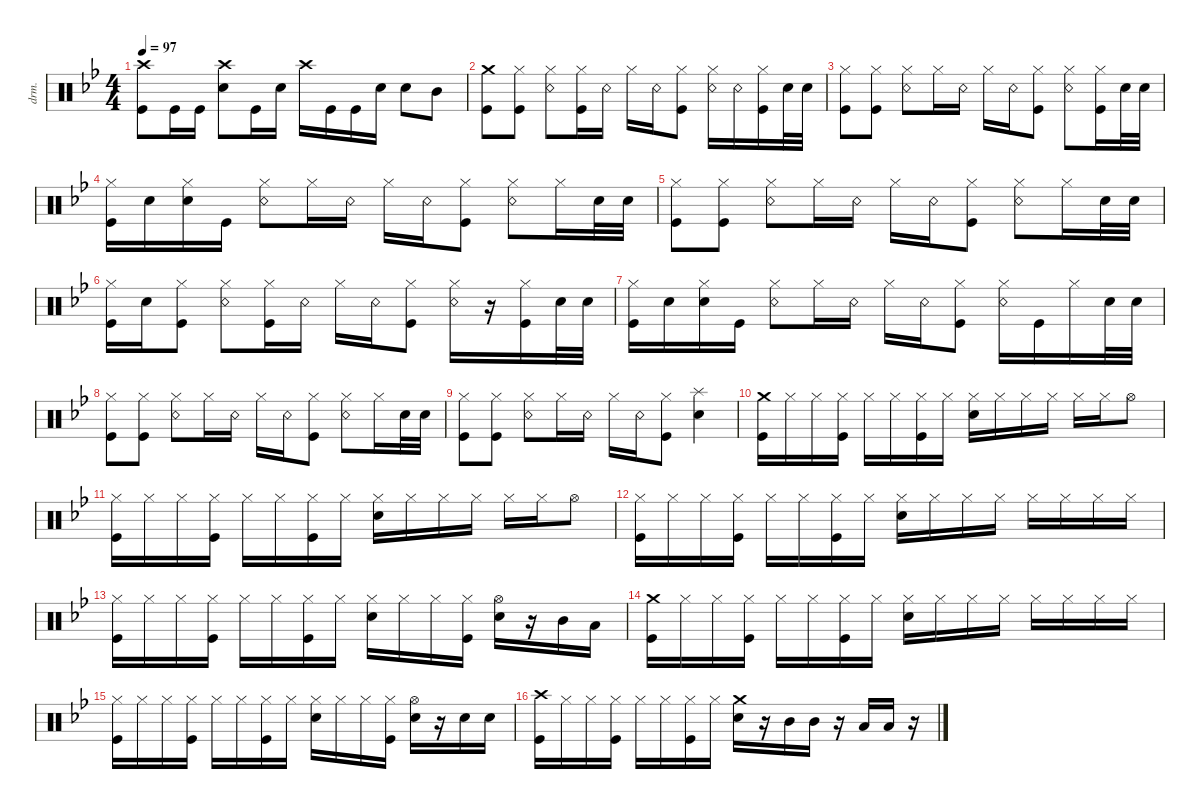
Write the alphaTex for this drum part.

\defaultSystemsLayout 4
\hideDynamics
\bracketExtendMode nobrackets
\otherSystemsTrackNameOrientation horizontal
\track ("Drumkit" "drm.") {instrument percussion}
\staff {score}
\articulation defaults
\ts (4 4)
\tempo 97
\clef neutral
\ks bb
("Kick (hit)" "Crash high (hit)").8{dy mp} "Kick (hit)".16 "Kick (hit)".16 ("Snare (hit) 2" "Crash high (hit)").8 "Kick (hit)".16 "Snare (hit) 2".16 "Crash high (hit)".16 "Kick (hit)".16 "Kick (hit)".16 "Snare (hit) 2".16 "Snare (hit) 2".8 "Mid Tom (hit)".8 |
("Kick (hit)" "Crash medium (hit)").8{dy p} ("Kick (hit)" "Hi-Hat (closed)").8 ("Snare (rim shot)" "Hi-Hat (closed)").8{dy mp} ("Kick (hit)" "Hi-Hat (closed)").16 "Snare (rim shot)".16 "Hi-Hat (closed)".16 "Snare (rim shot)".16 ("Kick (hit)" "Hi-Hat (closed)").8 ("Snare (rim shot)" "Hi-Hat (closed)").16 "Snare (rim shot)".16 ("Kick (hit)" "Hi-Hat (closed)").16 "Snare (hit) 2".32 "Snare (hit) 2".32 |
("Kick (hit)" "Hi-Hat (closed)").8 ("Kick (hit)" "Hi-Hat (closed)").8 ("Snare (rim shot)" "Hi-Hat (closed)").8 "Hi-Hat (closed)".16 "Snare (rim shot)".16 "Hi-Hat (closed)".16 "Snare (rim shot)".16 ("Kick (hit)" "Hi-Hat (closed)").8 ("Snare (rim shot)" "Hi-Hat (closed)").8 ("Kick (hit)" "Hi-Hat (closed)").16 "Snare (hit) 2".32 "Snare (hit) 2".32 |
("Kick (hit)" "Hi-Hat (closed)").16 "Snare (hit) 2".16 ("Snare (hit) 2" "Hi-Hat (closed)").16 "Kick (hit)".16 ("Snare (rim shot)" "Hi-Hat (closed)").8 "Hi-Hat (closed)".16 "Snare (rim shot)".16 "Hi-Hat (closed)".16 "Snare (rim shot)".16 ("Kick (hit)" "Hi-Hat (closed)").8 ("Snare (rim shot)" "Hi-Hat (closed)").8 "Hi-Hat (closed)".16 "Snare (hit) 2".32 "Snare (hit) 2".32 |
("Kick (hit)" "Hi-Hat (closed)").8 ("Kick (hit)" "Hi-Hat (closed)").8 ("Snare (rim shot)" "Hi-Hat (closed)").8 "Hi-Hat (closed)".16 "Snare (rim shot)".16 "Hi-Hat (closed)".16 "Snare (rim shot)".16 ("Kick (hit)" "Hi-Hat (closed)").8 ("Snare (rim shot)" "Hi-Hat (closed)").8 "Hi-Hat (closed)".16 "Snare (hit) 2".32 "Snare (hit) 2".32 |
("Kick (hit)" "Hi-Hat (closed)").16{dy p} "Snare (hit) 2".16 ("Kick (hit)" "Hi-Hat (closed)").8 ("Snare (rim shot)" "Hi-Hat (closed)").8{dy mp} ("Kick (hit)" "Hi-Hat (closed)").16 "Snare (rim shot)".16 "Hi-Hat (closed)".16 "Snare (rim shot)".16 ("Kick (hit)" "Hi-Hat (closed)").8 ("Snare (rim shot)" "Hi-Hat (closed)").16 r.16 ("Kick (hit)" "Hi-Hat (closed)").16 "Snare (hit) 2".32 "Snare (hit) 2".32 |
("Kick (hit)" "Hi-Hat (closed)").16 "Snare (hit) 2".16 ("Snare (hit) 2" "Hi-Hat (closed)").16 "Kick (hit)".16 ("Snare (rim shot)" "Hi-Hat (closed)").8 "Hi-Hat (closed)".16 "Snare (rim shot)".16 "Hi-Hat (closed)".16 "Snare (rim shot)".16 ("Kick (hit)" "Hi-Hat (closed)").8 ("Snare (rim shot)" "Hi-Hat (closed)").16 "Kick (hit)".16 "Hi-Hat (closed)".16 "Snare (hit) 2".32 "Snare (hit) 2".32 |
("Kick (hit)" "Hi-Hat (closed)").8 ("Kick (hit)" "Hi-Hat (closed)").8 ("Snare (rim shot)" "Hi-Hat (closed)").8 "Hi-Hat (closed)".16 "Snare (rim shot)".16 "Hi-Hat (closed)".16 "Snare (rim shot)".16 ("Kick (hit)" "Hi-Hat (closed)").8 ("Snare (rim shot)" "Hi-Hat (closed)").8 "Hi-Hat (closed)".16 "Snare (hit) 2".32 "Snare (hit) 2".32 |
("Kick (hit)" "Hi-Hat (closed)").8 ("Kick (hit)" "Hi-Hat (closed)").8 ("Snare (rim shot)" "Hi-Hat (closed)").8 "Hi-Hat (closed)".16 "Snare (rim shot)".16 "Hi-Hat (closed)".16 "Snare (rim shot)".16 ("Kick (hit)" "Hi-Hat (closed)").8 ("Splash (hit)" "Snare (hit) 2").4 |
("Crash medium (hit)" "Kick (hit)").16{dy mf} "Hi-Hat (closed)".16 "Hi-Hat (closed)".16 ("Hi-Hat (closed)" "Kick (hit)").16 "Hi-Hat (closed)".16 "Hi-Hat (closed)".16 ("Hi-Hat (closed)" "Kick (hit)").16 "Hi-Hat (closed)".16 ("Hi-Hat (closed)" "Snare (hit) 2").16 "Hi-Hat (closed)".16 "Hi-Hat (closed)".16 "Hi-Hat (closed)".16 "Hi-Hat (closed)".16 "Hi-Hat (closed)".16 "Hi-Hat (open)".8 |
("Kick (hit)" "Hi-Hat (closed)").16 "Hi-Hat (closed)".16 "Hi-Hat (closed)".16 ("Hi-Hat (closed)" "Kick (hit)").16 "Hi-Hat (closed)".16 "Hi-Hat (closed)".16 ("Hi-Hat (closed)" "Kick (hit)").16 "Hi-Hat (closed)".16 ("Hi-Hat (closed)" "Snare (hit) 2").16 "Hi-Hat (closed)".16 "Hi-Hat (closed)".16 "Hi-Hat (closed)".16 "Hi-Hat (closed)".16 "Hi-Hat (closed)".16 "Hi-Hat (open)".8 |
("Kick (hit)" "Hi-Hat (closed)").16 "Hi-Hat (closed)".16 "Hi-Hat (closed)".16 ("Hi-Hat (closed)" "Kick (hit)").16 "Hi-Hat (closed)".16 "Hi-Hat (closed)".16 ("Hi-Hat (closed)" "Kick (hit)").16 "Hi-Hat (closed)".16 ("Hi-Hat (closed)" "Snare (hit) 2").16 "Hi-Hat (closed)".16 "Hi-Hat (closed)".16 "Hi-Hat (closed)".16 "Hi-Hat (closed)".16 "Hi-Hat (closed)".16 "Hi-Hat (closed)".16 "Hi-Hat (closed)".16 |
("Kick (hit)" "Hi-Hat (closed)").16 "Hi-Hat (closed)".16 "Hi-Hat (closed)".16 ("Hi-Hat (closed)" "Kick (hit)").16 "Hi-Hat (closed)".16 "Hi-Hat (closed)".16 ("Hi-Hat (closed)" "Kick (hit)").16 "Hi-Hat (closed)".16 ("Hi-Hat (closed)" "Snare (hit) 2").16 "Hi-Hat (closed)".16 "Hi-Hat (closed)".16 ("Hi-Hat (closed)" "Kick (hit)").16 ("Hi-Hat (open)" "Snare (hit) 2").16 r.16 "Mid Tom (hit)".16 "Low Tom (hit)".16 |
("Crash medium (hit)" "Kick (hit)").16 "Hi-Hat (closed)".16 "Hi-Hat (closed)".16 ("Hi-Hat (closed)" "Kick (hit)").16 "Hi-Hat (closed)".16 "Hi-Hat (closed)".16 ("Hi-Hat (closed)" "Kick (hit)").16 "Hi-Hat (closed)".16 ("Hi-Hat (closed)" "Snare (hit) 2").16 "Hi-Hat (closed)".16 "Hi-Hat (closed)".16 "Hi-Hat (closed)".16 "Hi-Hat (closed)".16 "Hi-Hat (closed)".16 "Hi-Hat (closed)".16 "Hi-Hat (closed)".16 |
("Kick (hit)" "Hi-Hat (closed)").16 "Hi-Hat (closed)".16 "Hi-Hat (closed)".16 ("Hi-Hat (closed)" "Kick (hit)").16 "Hi-Hat (closed)".16 "Hi-Hat (closed)".16 ("Hi-Hat (closed)" "Kick (hit)").16 "Hi-Hat (closed)".16 ("Hi-Hat (closed)" "Snare (hit) 2").16 "Hi-Hat (closed)".16 "Hi-Hat (closed)".16 ("Hi-Hat (closed)" "Kick (hit)").16 ("Hi-Hat (open)" "Snare (hit) 2").16 r.16 "Snare (hit) 2".16 "Snare (hit) 2".16 |
("Kick (hit)" "Crash high (hit)").16 "Hi-Hat (closed)".16 "Hi-Hat (closed)".16 ("Hi-Hat (closed)" "Kick (hit)").16 "Hi-Hat (closed)".16 "Hi-Hat (closed)".16 ("Hi-Hat (closed)" "Kick (hit)").16 "Hi-Hat (closed)".16 ("Snare (hit) 2" "Crash medium (hit)").16 r.16 "Mid Tom (hit)".16 "Mid Tom (hit)".16 r.16 "Low Tom (hit)".16 "Low Tom (hit)".16 r.16
